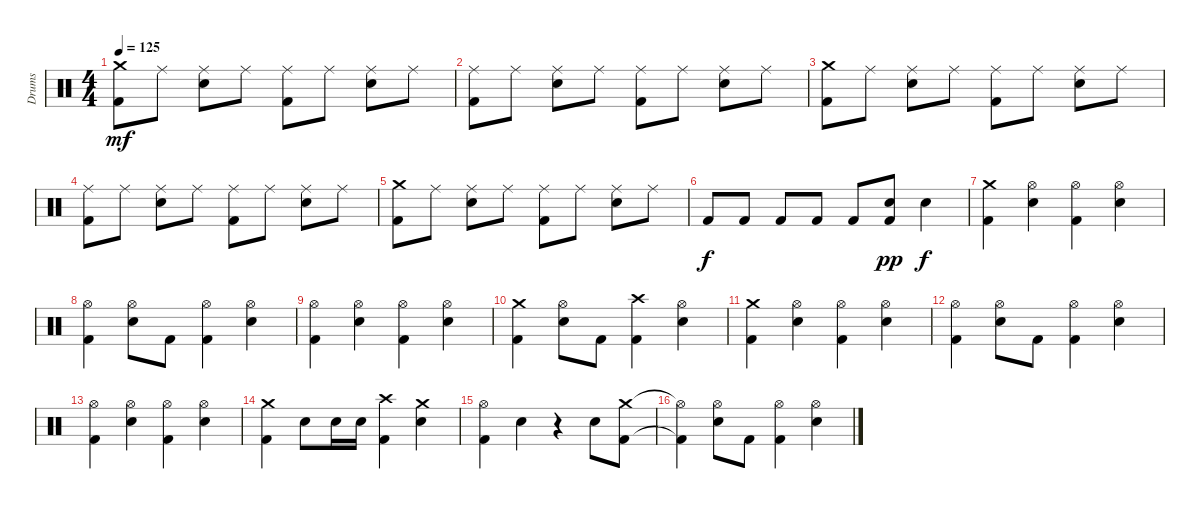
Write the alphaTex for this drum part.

\track ("Drums" "Drums") {instrument percussion}
\staff {score}
\articulation defaults
\ts (4 4)
\tempo 125
\clef neutral
\ks c
("Crash medium (hit)" "Kick (hit) 2").8{dy mf} "Ride (middle)".8 ("Ride (middle)" "Electric Snare (hit)").8 "Ride (middle)".8 ("Ride (middle)" "Kick (hit) 2").8 "Ride (middle)".8 ("Ride (middle)" "Electric Snare (hit)").8 "Ride (middle)".8 |
("Ride (middle)" "Kick (hit) 2").8 "Ride (middle)".8 ("Ride (middle)" "Electric Snare (hit)").8 "Ride (middle)".8 ("Ride (middle)" "Kick (hit) 2").8 "Ride (middle)".8 ("Ride (middle)" "Electric Snare (hit)").8 "Ride (middle)".8 |
("Crash medium (hit)" "Kick (hit) 2").8 "Ride (middle)".8 ("Ride (middle)" "Electric Snare (hit)").8 "Ride (middle)".8 ("Ride (middle)" "Kick (hit) 2").8 "Ride (middle)".8 ("Ride (middle)" "Electric Snare (hit)").8 "Ride (middle)".8 |
("Ride (middle)" "Kick (hit) 2").8 "Ride (middle)".8 ("Ride (middle)" "Electric Snare (hit)").8 "Ride (middle)".8 ("Ride (middle)" "Kick (hit) 2").8 "Ride (middle)".8 ("Ride (middle)" "Electric Snare (hit)").8 "Ride (middle)".8 |
("Crash medium (hit)" "Kick (hit) 2").8 "Ride (middle)".8 ("Ride (middle)" "Electric Snare (hit)").8 "Ride (middle)".8 ("Ride (middle)" "Kick (hit) 2").8 "Ride (middle)".8 ("Ride (middle)" "Electric Snare (hit)").8 "Ride (middle)".8 |
"Kick (hit) 2".8{dy f} "Kick (hit) 2".8 "Kick (hit) 2".8 "Kick (hit) 2".8 "Kick (hit) 2".8 ("Electric Snare (hit)" "Kick (hit) 2").8{dy pp} "Electric Snare (hit)".4{dy f} |
("Crash medium (hit)" "Kick (hit) 2").4 ("Hi-Hat (open)" "Electric Snare (hit)").4 ("Hi-Hat (open)" "Kick (hit) 2").4 ("Hi-Hat (open)" "Electric Snare (hit)").4 |
("Hi-Hat (open)" "Kick (hit) 2").4 ("Hi-Hat (open)" "Electric Snare (hit)").8 "Kick (hit) 2".8 ("Hi-Hat (open)" "Kick (hit) 2").4 ("Hi-Hat (open)" "Electric Snare (hit)").4 |
("Hi-Hat (open)" "Kick (hit) 2").4 ("Hi-Hat (open)" "Electric Snare (hit)").4 ("Hi-Hat (open)" "Kick (hit) 2").4 ("Hi-Hat (open)" "Electric Snare (hit)").4 |
("Crash medium (hit)" "Kick (hit) 2").4 ("Hi-Hat (open)" "Electric Snare (hit)").8 "Kick (hit) 2".8 ("Crash high (hit)" "Kick (hit) 2").4 ("Hi-Hat (open)" "Electric Snare (hit)").4 |
("Crash medium (hit)" "Kick (hit) 2").4 ("Hi-Hat (open)" "Electric Snare (hit)").4 ("Hi-Hat (open)" "Kick (hit) 2").4 ("Hi-Hat (open)" "Electric Snare (hit)").4 |
("Hi-Hat (open)" "Kick (hit) 2").4 ("Hi-Hat (open)" "Electric Snare (hit)").8 "Kick (hit) 2".8 ("Hi-Hat (open)" "Kick (hit) 2").4 ("Hi-Hat (open)" "Electric Snare (hit)").4 |
("Hi-Hat (open)" "Kick (hit) 2").4 ("Hi-Hat (open)" "Electric Snare (hit)").4 ("Hi-Hat (open)" "Kick (hit) 2").4 ("Hi-Hat (open)" "Electric Snare (hit)").4 |
("Crash medium (hit)" "Kick (hit) 2").4 "Electric Snare (hit)".8 "Electric Snare (hit)".16 "Electric Snare (hit)".16 ("Crash high (hit)" "Kick (hit) 2").4 ("Crash medium (hit)" "Electric Snare (hit)").4 |
("Hi-Hat (open)" "Kick (hit) 2").4 "Snare (hit) 2".4 r.4 "Electric Snare (hit)".8 ("Crash medium (hit)" "Kick (hit) 2").8 |
("Hi-Hat (open)"{t} "Kick (hit) 2"{t}).4 ("Hi-Hat (open)" "Electric Snare (hit)").8 "Kick (hit) 2".8 ("Hi-Hat (open)" "Kick (hit) 2").4 ("Hi-Hat (open)" "Electric Snare (hit)").4
